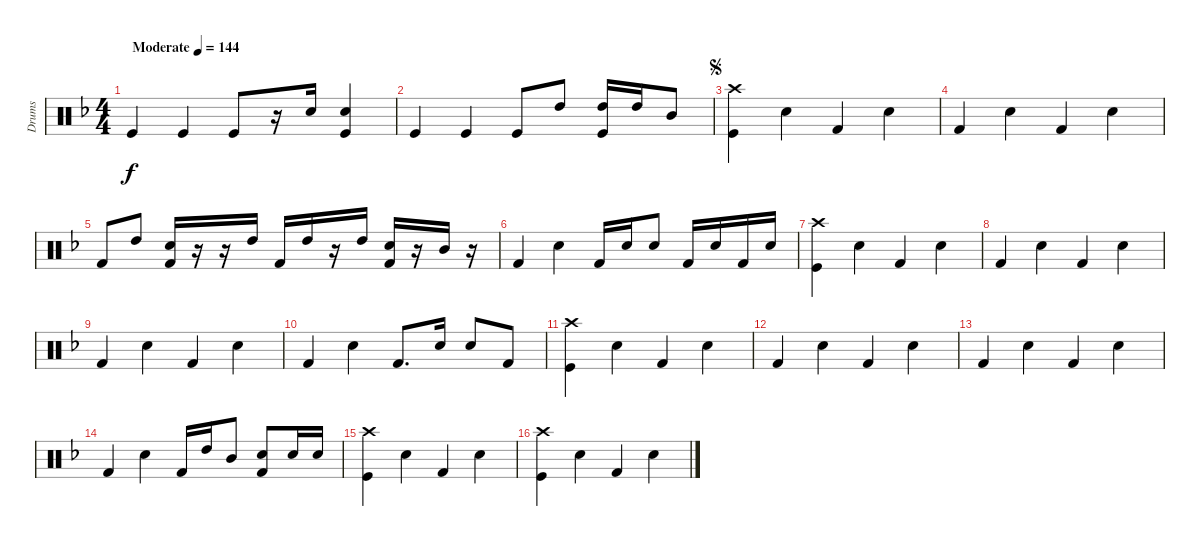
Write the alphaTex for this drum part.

\track ("Drums" "Drums") {instrument percussion}
\staff {score}
\articulation defaults
\ts (4 4)
\tempo (144 "Moderate")
\clef neutral
\ks f "Kick (hit)".4{dy f} "Kick (hit)".4 "Kick (hit)".8
r.16 "Snare (hit) 2".16 ("Snare (hit) 2" "Kick (hit)").4 |
"Kick (hit)".4 "Kick (hit)".4 "Kick (hit)".8 "High Tom (hit)".8 ("High Tom (hit)" "Kick (hit)").16 "High Tom (hit)".16 "Mid Tom (hit)".8 |
\jump segno
("Crash high (hit)" "Kick (hit)").4 "Snare (hit) 2".4 "Kick (hit) 2".4 "Snare (hit) 2".4 |
"Kick (hit) 2".4 "Snare (hit) 2".4 "Kick (hit) 2".4 "Snare (hit) 2".4 |
"Kick (hit) 2".8 "High Tom (hit)".8 ("Snare (hit) 2" "Kick (hit) 2").16 r.16 r.16 "High Tom (hit)".16 "Kick (hit) 2".16 "High Tom (hit)".16 r.16 "High Tom (hit)".16 ("Electric Snare (hit)" "Kick (hit) 2").16 r.16 "Mid Tom (hit)".16 r.16 |
"Kick (hit) 2".4 "Snare (hit) 2".4 "Kick (hit) 2".16 "Snare (hit) 2".16 "Snare (hit) 2".8 "Kick (hit) 2".16 "Snare (hit) 2".16 "Kick (hit) 2".16 "Snare (hit) 2".16 |
("Crash high (hit)" "Kick (hit)").4 "Snare (hit) 2".4 "Kick (hit) 2".4 "Snare (hit) 2".4 |
"Kick (hit) 2".4 "Snare (hit) 2".4 "Kick (hit) 2".4 "Snare (hit) 2".4 |
"Kick (hit) 2".4 "Snare (hit) 2".4 "Kick (hit) 2".4 "Snare (hit) 2".4 |
"Kick (hit) 2".4 "Snare (hit) 2".4 "Kick (hit) 2".8{d} "Snare (hit) 2".16 "Snare (hit) 2".8 "Kick (hit) 2".8 |
("Crash high (hit)" "Kick (hit)").4 "Snare (hit) 2".4 "Kick (hit) 2".4 "Snare (hit) 2".4 |
"Kick (hit) 2".4 "Snare (hit) 2".4 "Kick (hit) 2".4 "Snare (hit) 2".4 |
"Kick (hit) 2".4 "Snare (hit) 2".4 "Kick (hit) 2".4 "Snare (hit) 2".4 |
"Kick (hit) 2".4 "Snare (hit) 2".4 "Kick (hit) 2".16 "High Tom (hit)".16 "Mid Tom (hit)".8 ("Snare (hit) 2" "Kick (hit) 2").8 "Snare (hit) 2".16 "Snare (hit) 2".16 |
("Crash high (hit)" "Kick (hit)").4 "Snare (hit) 2".4 "Kick (hit) 2".4 "Snare (hit) 2".4 |
("Crash high (hit)" "Kick (hit)").4 "Snare (hit) 2".4 "Kick (hit) 2".4 "Snare (hit) 2".4
